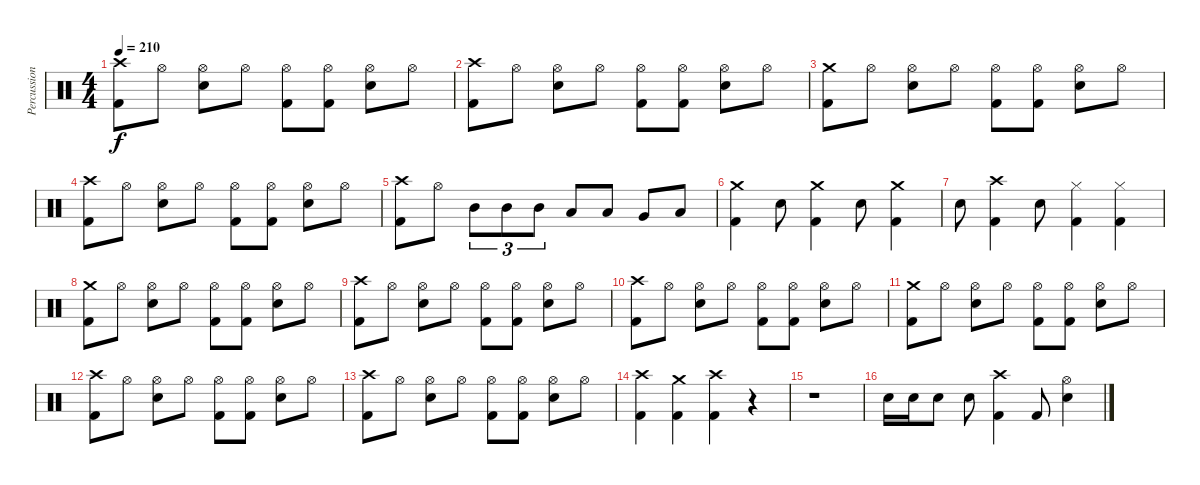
\track ("Percussion" "Percussion") {instrument percussion}
\staff {score}
\articulation defaults
\ts (4 4)
\tempo 210
\clef neutral
\ks c
("Crash high (hit)" "Kick (hit) 2").8{dy f} "Hi-Hat (open)".8 ("Hi-Hat (open)" "Snare (hit) 2").8 "Hi-Hat (open)".8 ("Hi-Hat (open)" "Kick (hit) 2").8 ("Hi-Hat (open)" "Kick (hit) 2").8 ("Hi-Hat (open)" "Snare (hit) 2").8 "Hi-Hat (open)".8 |
("Crash high (hit)" "Kick (hit) 2").8 "Hi-Hat (open)".8 ("Hi-Hat (open)" "Snare (hit) 2").8 "Hi-Hat (open)".8 ("Hi-Hat (open)" "Kick (hit) 2").8 ("Hi-Hat (open)" "Kick (hit) 2").8 ("Hi-Hat (open)" "Snare (hit) 2").8 "Hi-Hat (open)".8 |
("Crash medium (hit)" "Kick (hit) 2").8 "Hi-Hat (open)".8 ("Hi-Hat (open)" "Snare (hit) 2").8 "Hi-Hat (open)".8 ("Hi-Hat (open)" "Kick (hit) 2").8 ("Hi-Hat (open)" "Kick (hit) 2").8 ("Hi-Hat (open)" "Snare (hit) 2").8 "Hi-Hat (open)".8 |
("Crash high (hit)" "Kick (hit) 2").8 "Hi-Hat (open)".8 ("Hi-Hat (open)" "Snare (hit) 2").8 "Hi-Hat (open)".8 ("Hi-Hat (open)" "Kick (hit) 2").8 ("Hi-Hat (open)" "Kick (hit) 2").8 ("Hi-Hat (open)" "Snare (hit) 2").8 "Hi-Hat (open)".8 |
("Crash high (hit)" "Kick (hit) 2").8 "Hi-Hat (open)".8 "Mid Tom (hit)".8{tu (3 2)} "Mid Tom (hit)".8{tu (3 2)} "Mid Tom (hit)".8{tu (3 2)} "Low Tom (hit)".8 "Low Tom (hit)".8 "Very Low Tom (hit)".8 "Low Floor Tom (hit)".8 |
("Crash medium (hit)" "Kick (hit) 2").4 "Snare (hit) 2".8 ("Crash medium (hit)" "Kick (hit) 2").4 "Snare (hit) 2".8 ("Crash medium (hit)" "Kick (hit) 2").4 |
"Snare (hit) 2".8 ("Crash high (hit)" "Kick (hit) 2").4 "Snare (hit) 2".8 ("Hi-Hat (closed)" "Kick (hit) 2").4 ("Hi-Hat (closed)" "Kick (hit) 2").4 |
("Crash medium (hit)" "Kick (hit) 2").8 "Hi-Hat (open)".8 ("Hi-Hat (open)" "Snare (hit) 2").8 "Hi-Hat (open)".8 ("Hi-Hat (open)" "Kick (hit) 2").8 ("Hi-Hat (open)" "Kick (hit) 2").8 ("Hi-Hat (open)" "Snare (hit) 2").8 "Hi-Hat (open)".8 |
("Crash high (hit)" "Kick (hit) 2").8 "Hi-Hat (open)".8 ("Hi-Hat (open)" "Snare (hit) 2").8 "Hi-Hat (open)".8 ("Hi-Hat (open)" "Kick (hit) 2").8 ("Hi-Hat (open)" "Kick (hit) 2").8 ("Hi-Hat (open)" "Snare (hit) 2").8 "Hi-Hat (open)".8 |
("Crash high (hit)" "Kick (hit) 2").8 "Hi-Hat (open)".8 ("Hi-Hat (open)" "Snare (hit) 2").8 "Hi-Hat (open)".8 ("Hi-Hat (open)" "Kick (hit) 2").8 ("Hi-Hat (open)" "Kick (hit) 2").8 ("Hi-Hat (open)" "Snare (hit) 2").8 "Hi-Hat (open)".8 |
("Crash medium (hit)" "Kick (hit) 2").8 "Hi-Hat (open)".8 ("Hi-Hat (open)" "Snare (hit) 2").8 "Hi-Hat (open)".8 ("Hi-Hat (open)" "Kick (hit) 2").8 ("Hi-Hat (open)" "Kick (hit) 2").8 ("Hi-Hat (open)" "Snare (hit) 2").8 "Hi-Hat (open)".8 |
("Crash high (hit)" "Kick (hit) 2").8 "Hi-Hat (open)".8 ("Hi-Hat (open)" "Snare (hit) 2").8 "Hi-Hat (open)".8 ("Hi-Hat (open)" "Kick (hit) 2").8 ("Hi-Hat (open)" "Kick (hit) 2").8 ("Hi-Hat (open)" "Snare (hit) 2").8 "Hi-Hat (open)".8 |
("Crash high (hit)" "Kick (hit) 2").8 "Hi-Hat (open)".8 ("Hi-Hat (open)" "Snare (hit) 2").8 "Hi-Hat (open)".8 ("Hi-Hat (open)" "Kick (hit) 2").8 ("Hi-Hat (open)" "Kick (hit) 2").8 ("Hi-Hat (open)" "Snare (hit) 2").8 "Hi-Hat (open)".8 |
("Crash high (hit)" "Kick (hit) 2").4 ("Crash medium (hit)" "Kick (hit) 2").4 ("Crash high (hit)" "Kick (hit) 2").4 r.4 |
r.1 |
"Snare (hit) 2".16 "Snare (hit) 2".16 "Snare (hit) 2".8 "Snare (hit) 2".8 ("Crash high (hit)" "Kick (hit) 2").4 "Kick (hit) 2".8 ("Hi-Hat (open)" "Snare (hit) 2").4
